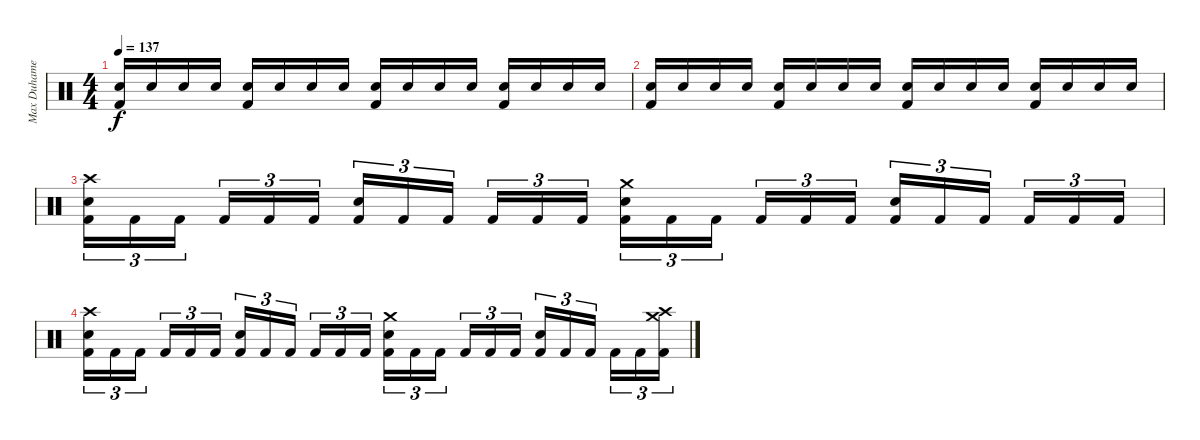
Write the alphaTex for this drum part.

\track ("Max Duhamel (Drums)" "Max Duhame") {instrument percussion}
\staff {score}
\articulation defaults
\ts (4 4)
\tempo 137
\clef neutral
\ks c
("Electric Snare (hit)" "Kick (hit) 2").16{dy f} "Electric Snare (hit)".16 "Electric Snare (hit)".16 "Electric Snare (hit)".16 ("Electric Snare (hit)" "Kick (hit) 2").16 "Electric Snare (hit)".16 "Electric Snare (hit)".16 "Electric Snare (hit)".16 ("Electric Snare (hit)" "Kick (hit) 2").16 "Electric Snare (hit)".16 "Electric Snare (hit)".16 "Electric Snare (hit)".16 ("Electric Snare (hit)" "Kick (hit) 2").16 "Electric Snare (hit)".16 "Electric Snare (hit)".16 "Electric Snare (hit)".16 |
("Electric Snare (hit)" "Kick (hit) 2").16 "Electric Snare (hit)".16 "Electric Snare (hit)".16 "Electric Snare (hit)".16 ("Electric Snare (hit)" "Kick (hit) 2").16 "Electric Snare (hit)".16 "Electric Snare (hit)".16 "Electric Snare (hit)".16 ("Electric Snare (hit)" "Kick (hit) 2").16 "Electric Snare (hit)".16 "Electric Snare (hit)".16 "Electric Snare (hit)".16 ("Electric Snare (hit)" "Kick (hit) 2").16 "Electric Snare (hit)".16 "Electric Snare (hit)".16 "Electric Snare (hit)".16 |
("Crash high (hit)" "Electric Snare (hit)" "Kick (hit) 2").16{tu (3 2)} "Kick (hit) 2".16{tu (3 2)} "Kick (hit) 2".16{tu (3 2) beam splitsecondary} "Kick (hit) 2".16{tu (3 2)} "Kick (hit) 2".16{tu (3 2)} "Kick (hit) 2".16{tu (3 2)} ("Electric Snare (hit)" "Kick (hit) 2").16{tu (3 2)} "Kick (hit) 2".16{tu (3 2)} "Kick (hit) 2".16{tu (3 2) beam splitsecondary} "Kick (hit) 2".16{tu (3 2)} "Kick (hit) 2".16{tu (3 2)} "Kick (hit) 2".16{tu (3 2)} ("Crash medium (hit)" "Electric Snare (hit)" "Kick (hit) 2").16{tu (3 2)} "Kick (hit) 2".16{tu (3 2)} "Kick (hit) 2".16{tu (3 2) beam splitsecondary} "Kick (hit) 2".16{tu (3 2)} "Kick (hit) 2".16{tu (3 2)} "Kick (hit) 2".16{tu (3 2)} ("Electric Snare (hit)" "Kick (hit) 2").16{tu (3 2)} "Kick (hit) 2".16{tu (3 2)} "Kick (hit) 2".16{tu (3 2) beam splitsecondary} "Kick (hit) 2".16{tu (3 2)} "Kick (hit) 2".16{tu (3 2)} "Kick (hit) 2".16{tu (3 2)} |
("Crash high (hit)" "Electric Snare (hit)" "Kick (hit) 2").16{tu (3 2)} "Kick (hit) 2".16{tu (3 2)} "Kick (hit) 2".16{tu (3 2) beam splitsecondary} "Kick (hit) 2".16{tu (3 2)} "Kick (hit) 2".16{tu (3 2)} "Kick (hit) 2".16{tu (3 2)} ("Electric Snare (hit)" "Kick (hit) 2").16{tu (3 2)} "Kick (hit) 2".16{tu (3 2)} "Kick (hit) 2".16{tu (3 2) beam splitsecondary} "Kick (hit) 2".16{tu (3 2)} "Kick (hit) 2".16{tu (3 2)} "Kick (hit) 2".16{tu (3 2)} ("Crash medium (hit)" "Electric Snare (hit)" "Kick (hit) 2").16{tu (3 2)} "Kick (hit) 2".16{tu (3 2)} "Kick (hit) 2".16{tu (3 2) beam splitsecondary} "Kick (hit) 2".16{tu (3 2)} "Kick (hit) 2".16{tu (3 2)} "Kick (hit) 2".16{tu (3 2)} ("Electric Snare (hit)" "Kick (hit) 2").16{tu (3 2)} "Kick (hit) 2".16{tu (3 2)} "Kick (hit) 2".16{tu (3 2) beam splitsecondary} "Kick (hit) 2".16{tu (3 2)} "Kick (hit) 2".16{tu (3 2)} ("Crash medium (hit)" "Crash high (hit)" "Kick (hit) 2").16{tu (3 2)}
